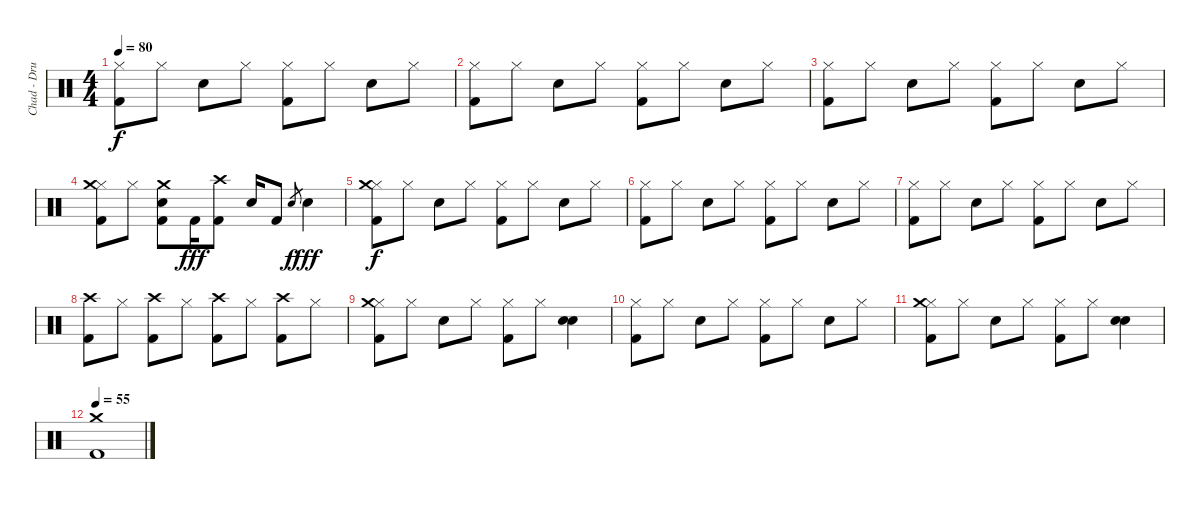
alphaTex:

\track ("Chad - Drums" "Chad - Dru") {instrument percussion}
\staff {score}
\articulation defaults
\ts (4 4)
\tempo 80
\clef neutral
\ks c
("Hi-Hat (closed)" "Kick (hit) 2").8{dy f} "Hi-Hat (closed)".8 "Electric Snare (hit)".8 "Hi-Hat (closed)".8 ("Hi-Hat (closed)" "Kick (hit) 2").8 "Hi-Hat (closed)".8 "Electric Snare (hit)".8 "Hi-Hat (closed)".8 |
("Hi-Hat (closed)" "Kick (hit) 2").8 "Hi-Hat (closed)".8 "Electric Snare (hit)".8 "Hi-Hat (closed)".8 ("Hi-Hat (closed)" "Kick (hit) 2").8 "Hi-Hat (closed)".8 "Electric Snare (hit)".8 "Hi-Hat (closed)".8 |
("Hi-Hat (closed)" "Kick (hit) 2").8 "Hi-Hat (closed)".8 "Electric Snare (hit)".8 "Hi-Hat (closed)".8 ("Hi-Hat (closed)" "Kick (hit) 2").8 "Hi-Hat (closed)".8 "Electric Snare (hit)".8 "Hi-Hat (closed)".8 |
("Hi-Hat (closed)" "Kick (hit) 2" "Crash medium (hit)").8 "Hi-Hat (closed)".8 ("Electric Snare (hit)" "Kick (hit) 2" "Crash medium (hit)").8 "Kick (hit) 2".16{dy fff} ("Kick (hit) 2" "Crash high (hit)").8 "Electric Snare (hit)".16 "Kick (hit) 2".8 "Electric Snare (hit)".8{gr dy f} "Electric Snare (hit)".4{dy fff} |
("Hi-Hat (closed)" "Kick (hit) 2" "Crash medium (hit)").8{dy f} "Hi-Hat (closed)".8 "Electric Snare (hit)".8 "Hi-Hat (closed)".8 ("Hi-Hat (closed)" "Kick (hit) 2").8 "Hi-Hat (closed)".8 "Electric Snare (hit)".8 "Hi-Hat (closed)".8 |
("Hi-Hat (closed)" "Kick (hit) 2").8 "Hi-Hat (closed)".8 "Electric Snare (hit)".8 "Hi-Hat (closed)".8 ("Hi-Hat (closed)" "Kick (hit) 2").8 "Hi-Hat (closed)".8 "Electric Snare (hit)".8 "Hi-Hat (closed)".8 |
("Hi-Hat (closed)" "Kick (hit) 2").8 "Hi-Hat (closed)".8 "Electric Snare (hit)".8 "Hi-Hat (closed)".8 ("Hi-Hat (closed)" "Kick (hit) 2").8 "Hi-Hat (closed)".8 "Electric Snare (hit)".8 "Hi-Hat (closed)".8 |
("Crash high (hit)" "Kick (hit) 2").8 "Hi-Hat (closed)".8 ("Crash high (hit)" "Kick (hit) 2").8 "Hi-Hat (closed)".8 ("Crash high (hit)" "Kick (hit) 2").8 "Hi-Hat (closed)".8 ("Crash high (hit)" "Kick (hit) 2").8 "Hi-Hat (closed)".8 |
("Hi-Hat (closed)" "Kick (hit) 2" "Crash medium (hit)").8 "Hi-Hat (closed)".8 "Electric Snare (hit)".8 "Hi-Hat (closed)".8 ("Hi-Hat (closed)" "Kick (hit) 2").8 "Hi-Hat (closed)".8 ("Electric Snare (hit)" "Electric Snare (hit)").4 |
("Hi-Hat (closed)" "Kick (hit) 2").8 "Hi-Hat (closed)".8 "Electric Snare (hit)".8 "Hi-Hat (closed)".8 ("Hi-Hat (closed)" "Kick (hit) 2").8 "Hi-Hat (closed)".8 "Electric Snare (hit)".8 "Hi-Hat (closed)".8 |
("Hi-Hat (closed)" "Kick (hit) 2" "Crash medium (hit)").8 "Hi-Hat (closed)".8 "Electric Snare (hit)".8 "Hi-Hat (closed)".8 ("Hi-Hat (closed)" "Kick (hit) 2").8 "Hi-Hat (closed)".8 ("Electric Snare (hit)" "Electric Snare (hit)").4 |
\tempo 55
("Crash medium (hit)" "Kick (hit) 2").1
